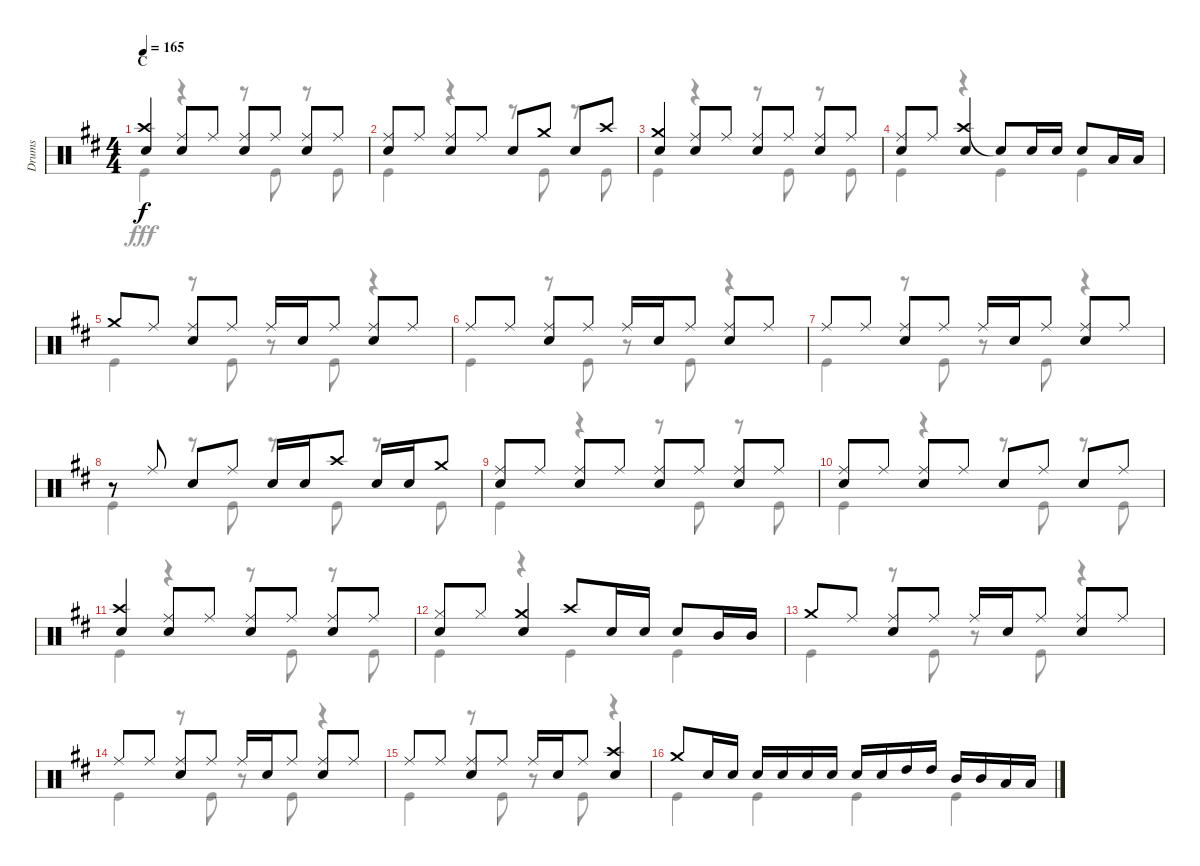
\track ("Drums" "Drums") {instrument percussion}
\staff {score}
\articulation defaults
\voice
\ts (4 4)
\section ("" "C")
\tempo 165
\clef neutral
\ks d
("Crash high (hit)" "Snare (hit) 2").4{dy f} ("Ride (middle)" "Snare (hit) 2").8 "Ride (middle)".8 ("Ride (middle)" "Snare (hit) 2").8 "Ride (middle)".8 ("Ride (middle)" "Snare (hit) 2").8 "Ride (middle)".8 |
("Ride (middle)" "Snare (hit) 2").8 "Ride (middle)".8 ("Ride (middle)" "Snare (hit) 2").8 "Ride (middle)".8 "Snare (hit) 2".8 "Crash medium (hit)".8 "Snare (hit) 2".8 "Crash high (hit)".8 |
("Crash medium (hit)" "Snare (hit) 2").4 ("Ride (middle)" "Snare (hit) 2").8 "Ride (middle)".8 ("Ride (middle)" "Snare (hit) 2").8 "Ride (middle)".8 ("Ride (middle)" "Snare (hit) 2").8 "Ride (middle)".8 |
("Ride (middle)" "Snare (hit) 2").8 "Ride (middle)".8 ("Crash high (hit)" "Snare (hit) 2").4 "Snare (hit)"{t}.8 "Snare (hit) 2".16 "Snare (hit) 2".16 "Snare (hit) 2".8 "Low Tom (hit)".16 "Low Tom (hit)".16 |
"Crash medium (hit)".8 "Ride (middle)".8 ("Ride (middle)" "Snare (hit) 2").8 "Ride (middle)".8 "Ride (middle)".16 "Snare (hit) 2".16 "Ride (middle)".8 ("Ride (middle)" "Snare (hit) 2").8 "Ride (middle)".8 |
"Ride (middle)".8 "Ride (middle)".8 ("Ride (middle)" "Snare (hit) 2").8 "Ride (middle)".8 "Ride (middle)".16 "Snare (hit) 2".16 "Ride (middle)".8 ("Ride (middle)" "Snare (hit) 2").8 "Ride (middle)".8 |
"Ride (middle)".8 "Ride (middle)".8 ("Ride (middle)" "Snare (hit) 2").8 "Ride (middle)".8 "Ride (middle)".16 "Snare (hit) 2".16 "Ride (middle)".8 ("Ride (middle)" "Snare (hit) 2").8 "Ride (middle)".8 |
r.8 "Ride (middle)".8 "Snare (hit) 2".8 "Ride (middle)".8 "Snare (hit) 2".16 "Snare (hit) 2".16 "Crash high (hit)".8 "Snare (hit) 2".16 "Snare (hit) 2".16 "Crash medium (hit)".8 |
("Ride (middle)" "Snare (hit) 2").8 "Ride (middle)".8 ("Ride (middle)" "Snare (hit) 2").8 "Ride (middle)".8 ("Ride (middle)" "Snare (hit) 2").8 "Ride (middle)".8 ("Ride (middle)" "Snare (hit) 2").8 "Ride (middle)".8 |
("Ride (middle)" "Snare (hit) 2").8 "Ride (middle)".8 ("Ride (middle)" "Snare (hit) 2").8 "Ride (middle)".8 "Snare (hit) 2".8 "Ride (middle)".8 "Snare (hit) 2".8 "Ride (middle)".8 |
("Crash high (hit)" "Snare (hit) 2").4 ("Ride (middle)" "Snare (hit) 2").8 "Ride (middle)".8 ("Ride (middle)" "Snare (hit) 2").8 "Ride (middle)".8 ("Ride (middle)" "Snare (hit) 2").8 "Ride (middle)".8 |
("Hi-Hat (closed)" "Snare (hit) 2").8 "Hi-Hat (closed)".8 ("Crash medium (hit)" "Snare (hit) 2").4 "Crash high (hit)".8 "Snare (hit) 2".16 "Snare (hit) 2".16 "Snare (hit) 2".8 "Mid Tom (hit)".16 "Mid Tom (hit)".16 |
"Crash medium (hit)".8 "Ride (middle)".8 ("Ride (middle)" "Snare (hit) 2").8 "Ride (middle)".8 "Ride (middle)".16 "Snare (hit) 2".16 "Ride (middle)".8 ("Ride (middle)" "Snare (hit) 2").8 "Ride (middle)".8 |
"Ride (middle)".8 "Ride (middle)".8 ("Ride (middle)" "Snare (hit) 2").8 "Ride (middle)".8 "Ride (middle)".16 "Snare (hit) 2".16 "Ride (middle)".8 ("Ride (middle)" "Snare (hit) 2").8 "Ride (middle)".8 |
"Ride (middle)".8 "Ride (middle)".8 ("Ride (middle)" "Snare (hit) 2").8 "Ride (middle)".8 "Ride (middle)".16 "Snare (hit) 2".16 "Ride (middle)".8 ("Crash high (hit)" "Snare (hit) 2").4 |
"Crash medium (hit)".8 "Snare (hit) 2".16 "Snare (hit) 2".16 "Snare (hit) 2".16 "Snare (hit) 2".16 "Snare (hit) 2".16 "Snare (hit) 2".16 "Snare (hit) 2".16 "Snare (hit) 2".16 "High Tom (hit)".16 "High Tom (hit)".16 "Mid Tom (hit)".16 "Mid Tom (hit)".16 "Low Tom (hit)".16 "Low Tom (hit)".16
\voice
\clef neutral
\ottava regular
\simile none
\ks d "Kick (hit)".4{dy fff}
r.4 r.8 "Kick (hit)".8 r.8 "Kick (hit)".8 |
"Kick (hit)".4 r.4 r.8 "Kick (hit)".8 r.8 "Kick (hit)".8 |
"Kick (hit)".4 r.4 r.8 "Kick (hit)".8 r.8 "Kick (hit)".8 |
"Kick (hit)".4 r.4 "Kick (hit)".4 "Kick (hit)".4 |
"Kick (hit)".4 r.8 "Kick (hit)".8 r.8 "Kick (hit)".8 r.4 |
"Kick (hit)".4 r.8 "Kick (hit)".8 r.8 "Kick (hit)".8 r.4 |
"Kick (hit)".4 r.8 "Kick (hit)".8 r.8 "Kick (hit)".8 r.4 |
"Kick (hit)".4 r.8 "Kick (hit)".8 r.8 "Kick (hit)".8 r.8 "Kick (hit)".8 |
"Kick (hit)".4 r.4 r.8 "Kick (hit)".8 r.8 "Kick (hit)".8 |
"Kick (hit)".4 r.4 r.8 "Kick (hit)".8 r.8 "Kick (hit)".8 |
"Kick (hit)".4 r.4 r.8 "Kick (hit)".8 r.8 "Kick (hit)".8 |
"Kick (hit)".4 r.4 "Kick (hit)".4 "Kick (hit)".4 |
"Kick (hit)".4 r.8 "Kick (hit)".8 r.8 "Kick (hit)".8 r.4 |
"Kick (hit)".4 r.8 "Kick (hit)".8 r.8 "Kick (hit)".8 r.4 |
"Kick (hit)".4 r.8 "Kick (hit)".8 r.8 "Kick (hit)".8 r.4 |
"Kick (hit)".4 "Kick (hit)".4 "Kick (hit)".4 "Kick (hit)".4
